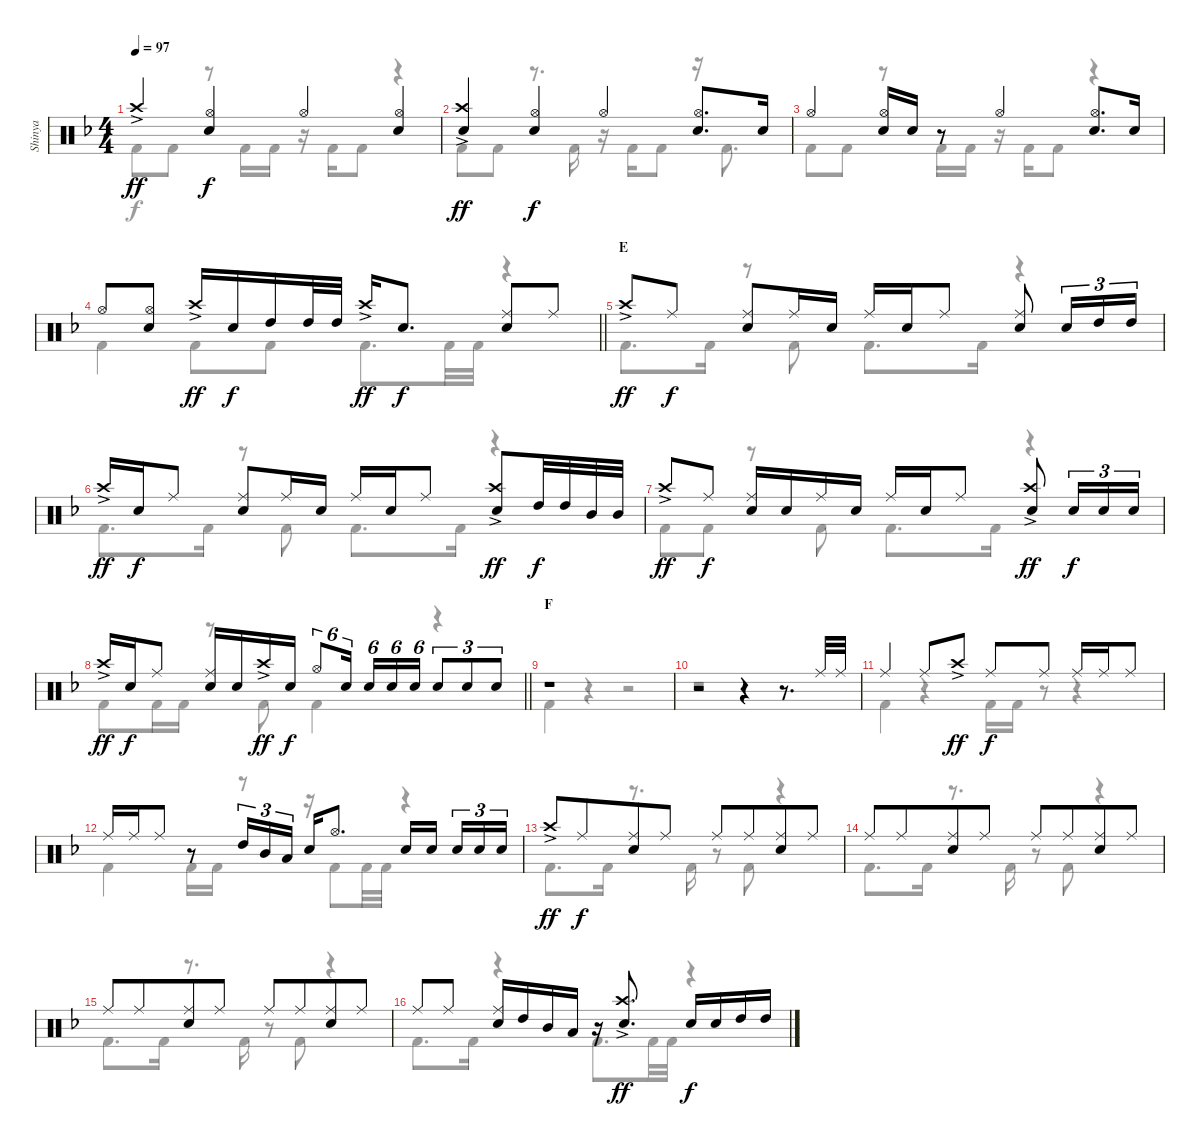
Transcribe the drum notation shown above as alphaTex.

\track ("Shinya" "Shinya") {mute instrument percussion}
\staff {score}
\articulation defaults
\voice
\ts (4 4)
\tempo 97
\clef neutral
\ks dminor "Crash high (hit)"{ac}.4{dy ff}
("Hi-Hat (open)" "Snare (hit) 2").4{dy f} "Hi-Hat (open)".4 ("Hi-Hat (open)" "Snare (hit) 2").4 |
("Crash high (hit)"{ac} "Snare (hit) 2").4{dy ff} ("Hi-Hat (open)" "Snare (hit) 2").4{dy f} "Hi-Hat (open)".4 ("Hi-Hat (open)" "Snare (hit) 2").8{d} "Snare (hit) 2".16 |
"Hi-Hat (open)".4 ("Hi-Hat (open)" "Snare (hit) 2").16 "Snare (hit) 2".16 r.8 "Hi-Hat (open)".4 ("Hi-Hat (open)" "Snare (hit) 2").8{d} "Snare (hit) 2".16 |
\barLineRight lightlight "Hi-Hat (open)".8
("Hi-Hat (open)" "Snare (hit) 2").8 "Crash high (hit)"{ac}.16{dy ff} "Snare (hit) 2".16{dy f} "High Tom (hit)".16 "High Tom (hit)".32 "High Tom (hit)".32 "Crash high (hit)"{ac}.16{dy ff} "Snare (hit) 2".8{d dy f} ("Ride (middle)" "Snare (hit) 2").8 "Ride (middle)".8 |
\section ("" "E")
"Crash high (hit)"{ac}.8{dy ff} "Ride (middle)".8{dy f} ("Ride (middle)" "Snare (hit) 2").8 "Ride (middle)".16 "Snare (hit) 2".16 "Ride (middle)".16 "Snare (hit) 2".16 "Ride (middle)".8 ("Ride (middle)" "Snare (hit) 2").8 "Snare (hit) 2".16{tu (3 2)} "High Tom (hit)".16{tu (3 2)} "High Tom (hit)".16{tu (3 2)} |
"Crash high (hit)"{ac}.16{dy ff} "Snare (hit) 2".16{dy f} "Ride (middle)".8 ("Ride (middle)" "Snare (hit) 2").8 "Ride (middle)".16 "Snare (hit) 2".16 "Ride (middle)".16 "Snare (hit) 2".16 "Ride (middle)".8 ("Crash high (hit)"{ac} "Snare (hit) 2").8{dy ff} "High Tom (hit)".32{dy f} "High Tom (hit)".32 "Mid Tom (hit)".32 "Mid Tom (hit)".32 |
"Crash high (hit)"{ac}.8{dy ff} "Ride (middle)".8{dy f} ("Ride (middle)" "Snare (hit) 2").16 "Snare (hit) 2".16 "Ride (middle)".16 "Snare (hit) 2".16 "Ride (middle)".16 "Snare (hit) 2".16 "Ride (middle)".8 ("Crash high (hit)"{ac} "Snare (hit) 2").8{dy ff} "Snare (hit) 2".16{tu (3 2) dy f} "Snare (hit) 2".16{tu (3 2)} "Snare (hit) 2".16{tu (3 2)} |
\barLineRight lightlight "Crash high (hit)"{ac}.16{dy ff} "Snare (hit) 2".16{dy f} "Ride (middle)".8
("Ride (middle)" "Snare (hit) 2").16 "Snare (hit) 2".16 "Crash high (hit)"{ac}.16{dy ff} "Snare (hit) 2".16{dy f} "Hi-Hat (open)".8{tu (6 4) beam merge} "Snare (hit) 2".16{tu (6 4) beam splitsecondary} "Snare (hit) 2".16{tu (6 4) beam merge} "Snare (hit) 2".16{tu (6 4) beam merge} "Snare (hit) 2".16{tu (6 4)} "Snare (hit) 2".8{tu (3 2)} "Snare (hit) 2".8{tu (3 2)} "Snare (hit) 2".8{tu (3 2)} |
\section ("" "F")
r.1 |
r.2 r.4 r.8{d} "Ride (middle)".32 "Ride (middle)".32 |
"Ride (middle)".4 "Ride (middle)".8 "Crash high (hit)"{ac}.8{dy ff} "Ride (middle)".8{dy f} "Ride (middle)".8 "Ride (middle)".16 "Ride (middle)".16 "Ride (middle)".8 |
"Ride (middle)".16 "Ride (middle)".16 "Ride (middle)".8 r.8 "High Tom (hit)".16{tu (3 2)} "Mid Tom (hit)".16{tu (3 2)} "Low Tom (hit)".16{tu (3 2)} "Snare (hit) 2".16 "Hi-Hat (open)".8{d} "Snare (hit) 2".16 "Snare (hit) 2".16{beam splitsecondary} "Snare (hit) 2".16{tu (3 2)} "Snare (hit) 2".16{tu (3 2)} "Snare (hit) 2".16{tu (3 2)} |
"Crash high (hit)"{ac}.8{dy ff} "Ride (middle)".8{dy f beam merge} ("Ride (middle)" "Snare (hit) 2").8 "Ride (middle)".8 "Ride (middle)".8 "Ride (middle)".8{beam merge} ("Ride (middle)" "Snare (hit) 2").8 "Ride (middle)".8 |
"Ride (middle)".8 "Ride (middle)".8{beam merge} ("Ride (middle)" "Snare (hit) 2").8 "Ride (middle)".8 "Ride (middle)".8 "Ride (middle)".8{beam merge} ("Ride (middle)" "Snare (hit) 2").8 "Ride (middle)".8 |
"Ride (middle)".8 "Ride (middle)".8{beam merge} ("Ride (middle)" "Snare (hit) 2").8 "Ride (middle)".8 "Ride (middle)".8 "Ride (middle)".8{beam merge} ("Ride (middle)" "Snare (hit) 2").8 "Ride (middle)".8 |
"Ride (middle)".8 "Ride (middle)".8 ("Ride (middle)" "Snare (hit) 2").16 "High Tom (hit)".16 "Mid Tom (hit)".16 "Low Tom (hit)".16 r.16 ("Crash high (hit)"{ac} "Snare (hit) 2").8{d dy ff} "Snare (hit) 2".16{dy f} "Snare (hit) 2".16 "High Tom (hit)".16 "High Tom (hit)".16
\voice
\clef neutral
\ottava regular
\simile none
\ks dminor "Kick (hit) 2".8{dy f} "Kick (hit) 2".8
r.8 "Kick (hit) 2".16 "Kick (hit) 2".16 r.16 "Kick (hit) 2".16 "Kick (hit) 2".8 r.4 |
"Kick (hit) 2".8 "Kick (hit) 2".8 r.8{d} "Kick (hit) 2".16 r.16 "Kick (hit) 2".16 "Kick (hit) 2".8 r.16 "Kick (hit) 2".8{d} |
"Kick (hit) 2".8 "Kick (hit) 2".8 r.8 "Kick (hit) 2".16 "Kick (hit) 2".16 r.16 "Kick (hit) 2".16 "Kick (hit) 2".8 r.4 |
\barLineRight lightlight "Kick (hit) 2".4 "Kick (hit) 2".8 "Kick (hit) 2".8 "Kick (hit) 2".8{d} "Kick (hit) 2".32 "Kick (hit) 2".32
r.4 |
"Kick (hit) 2".8{d} "Kick (hit) 2".16 r.8 "Kick (hit) 2".8 "Kick (hit) 2".8{d} "Kick (hit) 2".16 r.4 |
"Kick (hit) 2".8{d} "Kick (hit) 2".16 r.8 "Kick (hit) 2".8 "Kick (hit) 2".8{d} "Kick (hit) 2".16 r.4 |
"Kick (hit) 2".8 "Kick (hit) 2".8 r.8 "Kick (hit) 2".8 "Kick (hit) 2".8{d} "Kick (hit) 2".16 r.4 |
\barLineRight lightlight "Kick (hit) 2".8 "Kick (hit) 2".16 "Kick (hit) 2".16
r.8 "Kick (hit) 2".8 "Kick (hit) 2".4 r.4 |
"Kick (hit) 2".4 r.4 r.2 |
r.1 |
"Kick (hit) 2".4 r.4 "Kick (hit) 2".16 "Kick (hit) 2".16 r.8 r.4 |
"Kick (hit) 2".4 "Kick (hit) 2".16 "Kick (hit) 2".16 r.8 r.16 "Kick (hit) 2".8 "Kick (hit) 2".32 "Kick (hit) 2".32 r.4 |
"Kick (hit) 2".8{d} "Kick (hit) 2".16 r.8{d} "Kick (hit) 2".16 r.8 "Kick (hit) 2".8 r.4 |
"Kick (hit) 2".8{d} "Kick (hit) 2".16 r.8{d} "Kick (hit) 2".16 r.8 "Kick (hit) 2".8 r.4 |
"Kick (hit) 2".8{d} "Kick (hit) 2".16 r.8{d} "Kick (hit) 2".16 r.8 "Kick (hit) 2".8 r.4 |
"Kick (hit) 2".8{d} "Kick (hit) 2".16 r.4 "Kick (hit) 2".8{d} "Kick (hit) 2".32 "Kick (hit) 2".32 r.4
